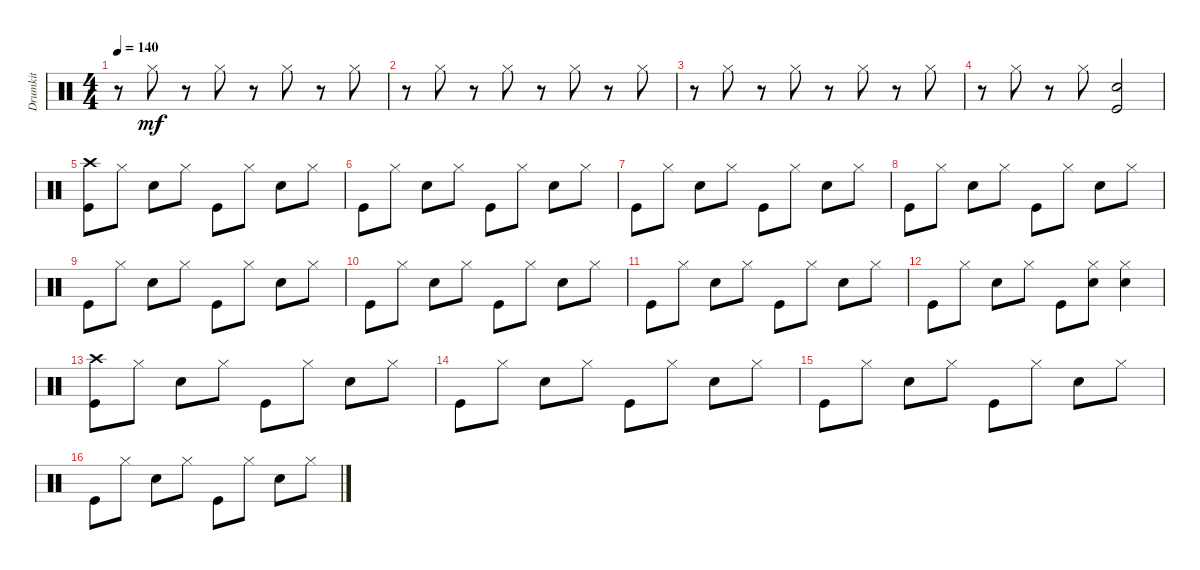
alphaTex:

\track ("Drumkit" "Drumkit") {instrument percussion}
\staff {score}
\articulation defaults
\ts (4 4)
\tempo 140
\clef neutral
\ks c
r.8{dy mf} "Hi-Hat (closed)".8 r.8 "Hi-Hat (closed)".8 r.8 "Hi-Hat (closed)".8 r.8 "Hi-Hat (closed)".8 |
r.8 "Hi-Hat (closed)".8 r.8 "Hi-Hat (closed)".8 r.8 "Hi-Hat (closed)".8 r.8 "Hi-Hat (closed)".8 |
r.8 "Hi-Hat (closed)".8 r.8 "Hi-Hat (closed)".8 r.8 "Hi-Hat (closed)".8 r.8 "Hi-Hat (closed)".8 |
r.8 "Hi-Hat (closed)".8 r.8 "Hi-Hat (closed)".8 ("Kick (hit)" "Snare (hit) 2").2 |
("Kick (hit)" "Crash high (hit)").8 "Hi-Hat (closed)".8 "Snare (hit) 2".8 "Hi-Hat (closed)".8 "Kick (hit)".8 "Hi-Hat (closed)".8 "Snare (hit) 2".8 "Hi-Hat (closed)".8 |
"Kick (hit)".8 "Hi-Hat (closed)".8 "Snare (hit) 2".8 "Hi-Hat (closed)".8 "Kick (hit)".8 "Hi-Hat (closed)".8 "Snare (hit) 2".8 "Hi-Hat (closed)".8 |
"Kick (hit)".8 "Hi-Hat (closed)".8 "Snare (hit) 2".8 "Hi-Hat (closed)".8 "Kick (hit)".8 "Hi-Hat (closed)".8 "Snare (hit) 2".8 "Hi-Hat (closed)".8 |
"Kick (hit)".8 "Hi-Hat (closed)".8 "Snare (hit) 2".8 "Hi-Hat (closed)".8 "Kick (hit)".8 "Hi-Hat (closed)".8 "Snare (hit) 2".8 "Hi-Hat (closed)".8 |
"Kick (hit)".8 "Hi-Hat (closed)".8 "Snare (hit) 2".8 "Hi-Hat (closed)".8 "Kick (hit)".8 "Hi-Hat (closed)".8 "Snare (hit) 2".8 "Hi-Hat (closed)".8 |
"Kick (hit)".8 "Hi-Hat (closed)".8 "Snare (hit) 2".8 "Hi-Hat (closed)".8 "Kick (hit)".8 "Hi-Hat (closed)".8 "Snare (hit) 2".8 "Hi-Hat (closed)".8 |
"Kick (hit)".8 "Hi-Hat (closed)".8 "Snare (hit) 2".8 "Hi-Hat (closed)".8 "Kick (hit)".8 "Hi-Hat (closed)".8 "Snare (hit) 2".8 "Hi-Hat (closed)".8 |
"Kick (hit)".8 "Hi-Hat (closed)".8 "Snare (hit) 2".8 "Hi-Hat (closed)".8 "Kick (hit)".8 ("Hi-Hat (closed)" "Snare (hit) 2").8 ("Snare (hit) 2" "Hi-Hat (closed)").4 |
("Kick (hit)" "Crash high (hit)").8 "Hi-Hat (closed)".8 "Snare (hit) 2".8 "Hi-Hat (closed)".8 "Kick (hit)".8 "Hi-Hat (closed)".8 "Snare (hit) 2".8 "Hi-Hat (closed)".8 |
"Kick (hit)".8 "Hi-Hat (closed)".8 "Snare (hit) 2".8 "Hi-Hat (closed)".8 "Kick (hit)".8 "Hi-Hat (closed)".8 "Snare (hit) 2".8 "Hi-Hat (closed)".8 |
"Kick (hit)".8 "Hi-Hat (closed)".8 "Snare (hit) 2".8 "Hi-Hat (closed)".8 "Kick (hit)".8 "Hi-Hat (closed)".8 "Snare (hit) 2".8 "Hi-Hat (closed)".8 |
"Kick (hit)".8 "Hi-Hat (closed)".8 "Snare (hit) 2".8 "Hi-Hat (closed)".8 "Kick (hit)".8 "Hi-Hat (closed)".8 "Snare (hit) 2".8 "Hi-Hat (closed)".8
